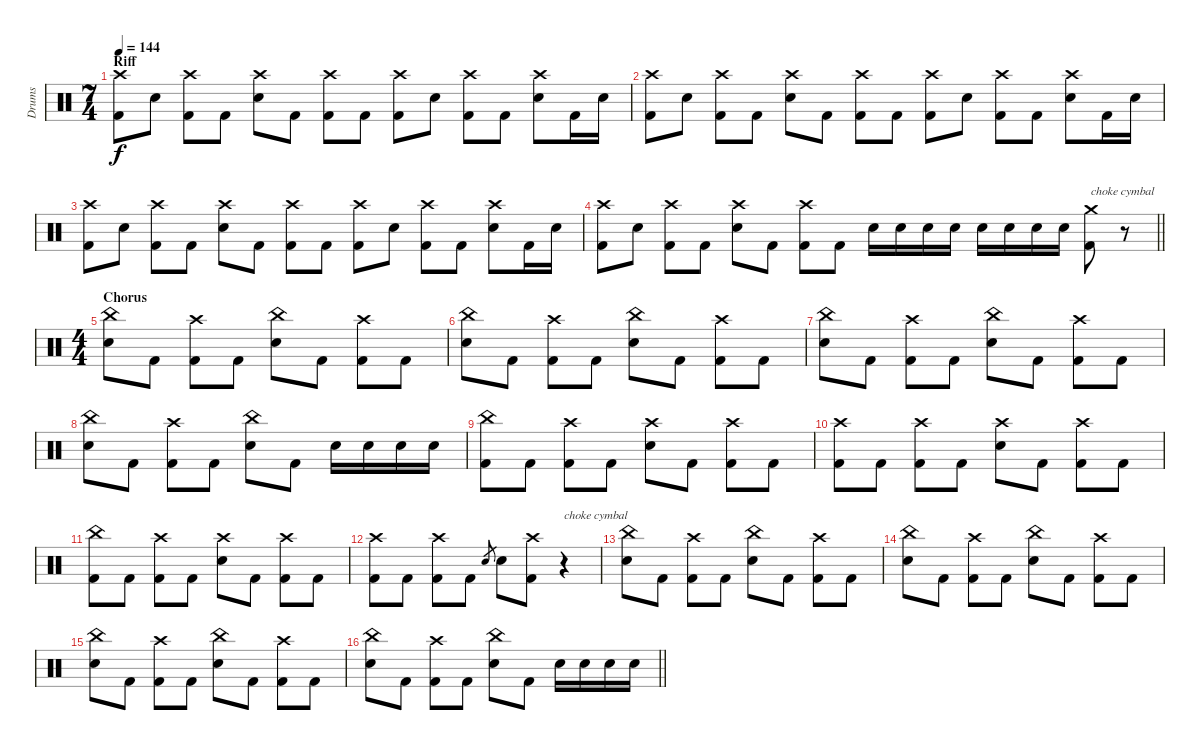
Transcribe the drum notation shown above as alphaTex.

\track ("Drums" "Drums") {instrument percussion}
\staff {score}
\articulation defaults
\ts (7 4)
\section ("" "Riff")
\tempo 144
\clef neutral
\ks c
("Crash high (hit)" "Kick (hit) 2").8{dy f} "Electric Snare (hit)".8 ("Crash high (hit)" "Kick (hit) 2").8 "Kick (hit) 2".8 ("Crash high (hit)" "Electric Snare (hit)").8 "Kick (hit) 2".8 ("Crash high (hit)" "Kick (hit) 2").8 "Kick (hit) 2".8 ("Crash high (hit)" "Kick (hit) 2").8 "Electric Snare (hit)".8 ("Crash high (hit)" "Kick (hit) 2").8 "Kick (hit) 2".8 ("Crash high (hit)" "Electric Snare (hit)").8 "Kick (hit) 2".16 "Electric Snare (hit)".16 |
("Crash high (hit)" "Kick (hit) 2").8 "Electric Snare (hit)".8 ("Crash high (hit)" "Kick (hit) 2").8 "Kick (hit) 2".8 ("Crash high (hit)" "Electric Snare (hit)").8 "Kick (hit) 2".8 ("Crash high (hit)" "Kick (hit) 2").8 "Kick (hit) 2".8 ("Crash high (hit)" "Kick (hit) 2").8 "Electric Snare (hit)".8 ("Crash high (hit)" "Kick (hit) 2").8 "Kick (hit) 2".8 ("Crash high (hit)" "Electric Snare (hit)").8 "Kick (hit) 2".16 "Electric Snare (hit)".16 |
("Crash high (hit)" "Kick (hit) 2").8 "Electric Snare (hit)".8 ("Crash high (hit)" "Kick (hit) 2").8 "Kick (hit) 2".8 ("Crash high (hit)" "Electric Snare (hit)").8 "Kick (hit) 2".8 ("Crash high (hit)" "Kick (hit) 2").8 "Kick (hit) 2".8 ("Crash high (hit)" "Kick (hit) 2").8 "Electric Snare (hit)".8 ("Crash high (hit)" "Kick (hit) 2").8 "Kick (hit) 2".8 ("Crash high (hit)" "Electric Snare (hit)").8 "Kick (hit) 2".16 "Electric Snare (hit)".16 |
\barLineRight lightlight
("Crash high (hit)" "Kick (hit) 2").8 "Electric Snare (hit)".8 ("Crash high (hit)" "Kick (hit) 2").8 "Kick (hit) 2".8 ("Crash high (hit)" "Electric Snare (hit)").8 "Kick (hit) 2".8 ("Crash high (hit)" "Kick (hit) 2").8 "Kick (hit) 2".8 "Electric Snare (hit)".16 "Electric Snare (hit)".16 "Electric Snare (hit)".16 "Electric Snare (hit)".16 "Electric Snare (hit)".16 "Electric Snare (hit)".16 "Electric Snare (hit)".16 "Electric Snare (hit)".16 ("Crash medium (hit)" "Kick (hit) 2").8{txt "choke cymbal"} r.8{volume 0} |
\ts (4 4)
\section ("" "Chorus")
("China (hit)" "Electric Snare (hit)").8{volume 14} "Kick (hit) 2".8 ("Crash high (hit)" "Kick (hit) 2").8 "Kick (hit) 2".8 ("China (hit)" "Electric Snare (hit)").8 "Kick (hit) 2".8 ("Crash high (hit)" "Kick (hit) 2").8 "Kick (hit) 2".8 |
("China (hit)" "Electric Snare (hit)").8 "Kick (hit) 2".8 ("Crash high (hit)" "Kick (hit) 2").8 "Kick (hit) 2".8 ("China (hit)" "Electric Snare (hit)").8 "Kick (hit) 2".8 ("Crash high (hit)" "Kick (hit) 2").8 "Kick (hit) 2".8 |
("China (hit)" "Electric Snare (hit)").8 "Kick (hit) 2".8 ("Crash high (hit)" "Kick (hit) 2").8 "Kick (hit) 2".8 ("China (hit)" "Electric Snare (hit)").8 "Kick (hit) 2".8 ("Crash high (hit)" "Kick (hit) 2").8 "Kick (hit) 2".8 |
("China (hit)" "Electric Snare (hit)").8 "Kick (hit) 2".8 ("Crash high (hit)" "Kick (hit) 2").8 "Kick (hit) 2".8 ("China (hit)" "Electric Snare (hit)").8 "Kick (hit) 2".8 "Electric Snare (hit)".16 "Electric Snare (hit)".16 "Electric Snare (hit)".16 "Electric Snare (hit)".16 |
("China (hit)" "Kick (hit) 2").8 "Kick (hit) 2".8 ("Crash high (hit)" "Kick (hit) 2").8 "Kick (hit) 2".8 ("Crash high (hit)" "Electric Snare (hit)").8 "Kick (hit) 2".8 ("Crash high (hit)" "Kick (hit) 2").8 "Kick (hit) 2".8 |
("Crash high (hit)" "Kick (hit) 2").8 "Kick (hit) 2".8 ("Crash high (hit)" "Kick (hit) 2").8 "Kick (hit) 2".8 ("Crash high (hit)" "Electric Snare (hit)").8 "Kick (hit) 2".8 ("Crash high (hit)" "Kick (hit) 2").8 "Kick (hit) 2".8 |
("China (hit)" "Kick (hit) 2").8 "Kick (hit) 2".8 ("Crash high (hit)" "Kick (hit) 2").8 "Kick (hit) 2".8 ("Crash high (hit)" "Electric Snare (hit)").8 "Kick (hit) 2".8 ("Crash high (hit)" "Kick (hit) 2").8 "Kick (hit) 2".8 |
("Crash high (hit)" "Kick (hit) 2").8 "Kick (hit) 2".8 ("Crash high (hit)" "Kick (hit) 2").8 "Kick (hit) 2".8 "Electric Snare (hit)".8{gr} "Electric Snare (hit)".8 ("Crash high (hit)" "Kick (hit) 2").8 r.4{txt "choke cymbal" volume 0} |
("China (hit)" "Electric Snare (hit)").8{volume 14} "Kick (hit) 2".8 ("Crash high (hit)" "Kick (hit) 2").8 "Kick (hit) 2".8 ("China (hit)" "Electric Snare (hit)").8 "Kick (hit) 2".8 ("Crash high (hit)" "Kick (hit) 2").8 "Kick (hit) 2".8 |
("China (hit)" "Electric Snare (hit)").8 "Kick (hit) 2".8 ("Crash high (hit)" "Kick (hit) 2").8 "Kick (hit) 2".8 ("China (hit)" "Electric Snare (hit)").8 "Kick (hit) 2".8 ("Crash high (hit)" "Kick (hit) 2").8 "Kick (hit) 2".8 |
("China (hit)" "Electric Snare (hit)").8 "Kick (hit) 2".8 ("Crash high (hit)" "Kick (hit) 2").8 "Kick (hit) 2".8 ("China (hit)" "Electric Snare (hit)").8 "Kick (hit) 2".8 ("Crash high (hit)" "Kick (hit) 2").8 "Kick (hit) 2".8 |
\barLineRight lightlight
("China (hit)" "Electric Snare (hit)").8 "Kick (hit) 2".8 ("Crash high (hit)" "Kick (hit) 2").8 "Kick (hit) 2".8 ("China (hit)" "Electric Snare (hit)").8 "Kick (hit) 2".8 "Electric Snare (hit)".16 "Electric Snare (hit)".16 "Electric Snare (hit)".16 "Electric Snare (hit)".16
